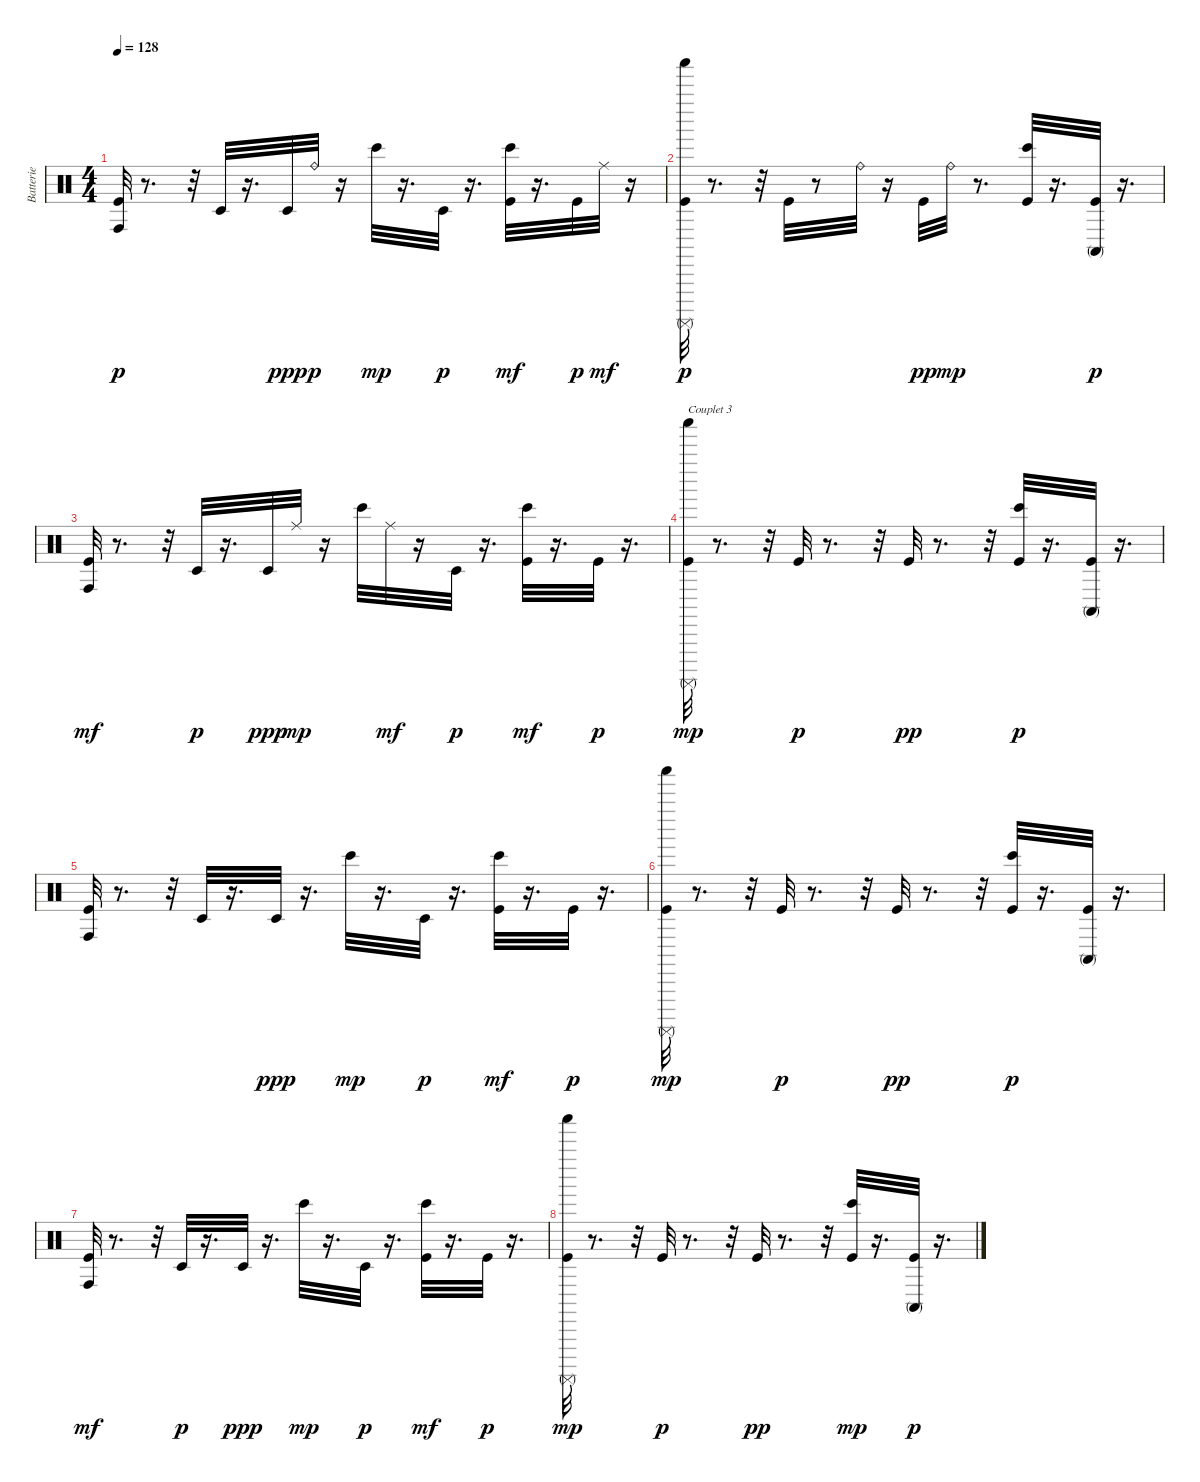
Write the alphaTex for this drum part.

\track ("Batterie" "Batterie") {instrument percussion}
\staff {score}
\articulation defaults
\ts (4 4)
\tempo 128
\clef neutral
\ks c
("Conga high (hit)" "Kick (hit)").32{dy p} r.8{d} r.32 "Timbale low (hit)".32 r.16{d} "Timbale low (hit)".32{dy ppp} "Ride (bell)".32{dy p} r.16 "Bongo High (hit)".32{dy mp} r.16{d} "Timbale low (hit)".32{dy p} r.16{d} ("Kick (hit)" "Bongo High (hit)").32{dy mf} r.16{d} "Kick (hit)".32{dy p} "Ride (middle)".32{dy mf} r.16 |
("Surdo (mute)" "Shaker (hit)" "Kick (hit)").32{dy p} r.8{d} r.32 "Kick (hit)".32 r.8 "Ride (bell)".32 r.16 "Kick (hit)".32{dy pp} "Ride (bell)".32{dy mp} r.8{d} ("Kick (hit)" "Bongo High (hit)").32 r.16{d} ("Conga high (mute)" "Kick (hit)").32{dy p} r.16{d} |
("Kick (hit)" "Conga high (hit)").32{dy mf} r.8{d} r.32 "Timbale low (hit)".32{dy p} r.16{d} "Timbale low (hit)".32{dy ppp} "Ride (middle)".32{dy mp} r.16 "Bongo High (hit)".32 "Ride (middle)".32{dy mf} r.16 "Timbale low (hit)".32{dy p} r.16{d} ("Kick (hit)" "Bongo High (hit)").32{dy mf} r.16{d} "Kick (hit)".32{dy p} r.16{d} |
("Shaker (hit)" "Kick (hit)" "Surdo (mute)").32{txt "Couplet 3" dy mp} r.8{d} r.32 "Kick (hit)".32{dy p} r.8{d} r.32 "Kick (hit)".32{dy pp} r.8{d} r.32 ("Bongo High (hit)" "Kick (hit)").32{dy p} r.16{d} ("Kick (hit)" "Conga high (mute)").32 r.16{d} |
("Conga high (hit)" "Kick (hit)").32 r.8{d} r.32 "Timbale low (hit)".32 r.16{d} "Timbale low (hit)".32{dy ppp} r.16{d} "Bongo High (hit)".32{dy mp} r.16{d} "Timbale low (hit)".32{dy p} r.16{d} ("Kick (hit)" "Bongo High (hit)").32{dy mf} r.16{d} "Kick (hit)".32{dy p} r.16{d} |
("Kick (hit)" "Shaker (hit)" "Surdo (mute)").32{dy mp} r.8{d} r.32 "Kick (hit)".32{dy p} r.8{d} r.32 "Kick (hit)".32{dy pp} r.8{d} r.32 ("Bongo High (hit)" "Kick (hit)").32{dy p} r.16{d} ("Kick (hit)" "Conga high (mute)").32 r.16{d} |
("Kick (hit)" "Conga high (hit)").32{dy mf} r.8{d} r.32 "Timbale low (hit)".32{dy p} r.16{d} "Timbale low (hit)".32{dy ppp} r.16{d} "Bongo High (hit)".32{dy mp} r.16{d} "Timbale low (hit)".32{dy p} r.16{d} ("Kick (hit)" "Bongo High (hit)").32{dy mf} r.16{d} "Kick (hit)".32{dy p} r.16{d} |
("Shaker (hit)" "Kick (hit)" "Surdo (mute)").32{dy mp} r.8{d} r.32 "Kick (hit)".32{dy p} r.8{d} r.32 "Kick (hit)".32{dy pp} r.8{d} r.32 ("Kick (hit)" "Bongo High (hit)").32{dy mp} r.16{d} ("Kick (hit)" "Conga high (mute)").32{dy p} r.16{d}
